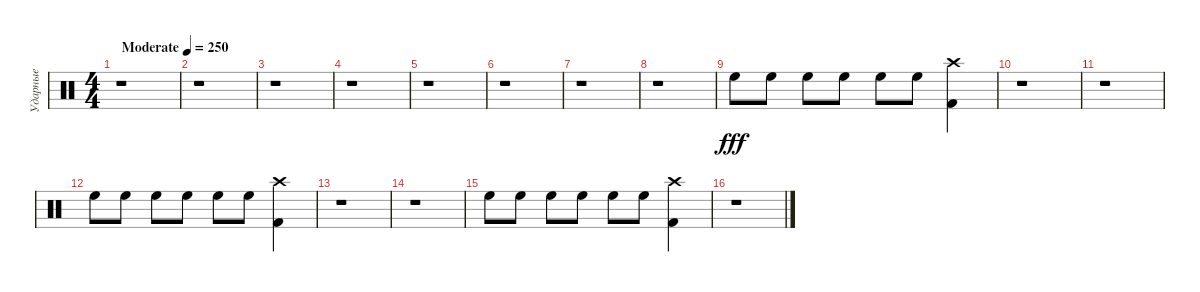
\track ("Ударные" "Ударные") {instrument percussion}
\staff {score}
\articulation defaults
\ts (4 4)
\tempo (250 "Moderate")
\clef neutral
\ks c
r.1{dy fff} |
r.1 |
r.1 |
r.1 |
r.1 |
r.1 |
r.1 |
r.1 |
"High Floor Tom (hit)".8 "High Floor Tom (hit)".8 "High Floor Tom (hit)".8 "High Floor Tom (hit)".8 "High Floor Tom (hit)".8 "High Floor Tom (hit)".8 ("Kick (hit) 2" "Crash high (hit)").4 |
r.1 |
r.1 |
"High Floor Tom (hit)".8 "High Floor Tom (hit)".8 "High Floor Tom (hit)".8 "High Floor Tom (hit)".8 "High Floor Tom (hit)".8 "High Floor Tom (hit)".8 ("Kick (hit) 2" "Crash high (hit)").4 |
r.1 |
r.1 |
"High Floor Tom (hit)".8 "High Floor Tom (hit)".8 "High Floor Tom (hit)".8 "High Floor Tom (hit)".8 "High Floor Tom (hit)".8 "High Floor Tom (hit)".8 ("Kick (hit) 2" "Crash high (hit)").4 |
r.1
